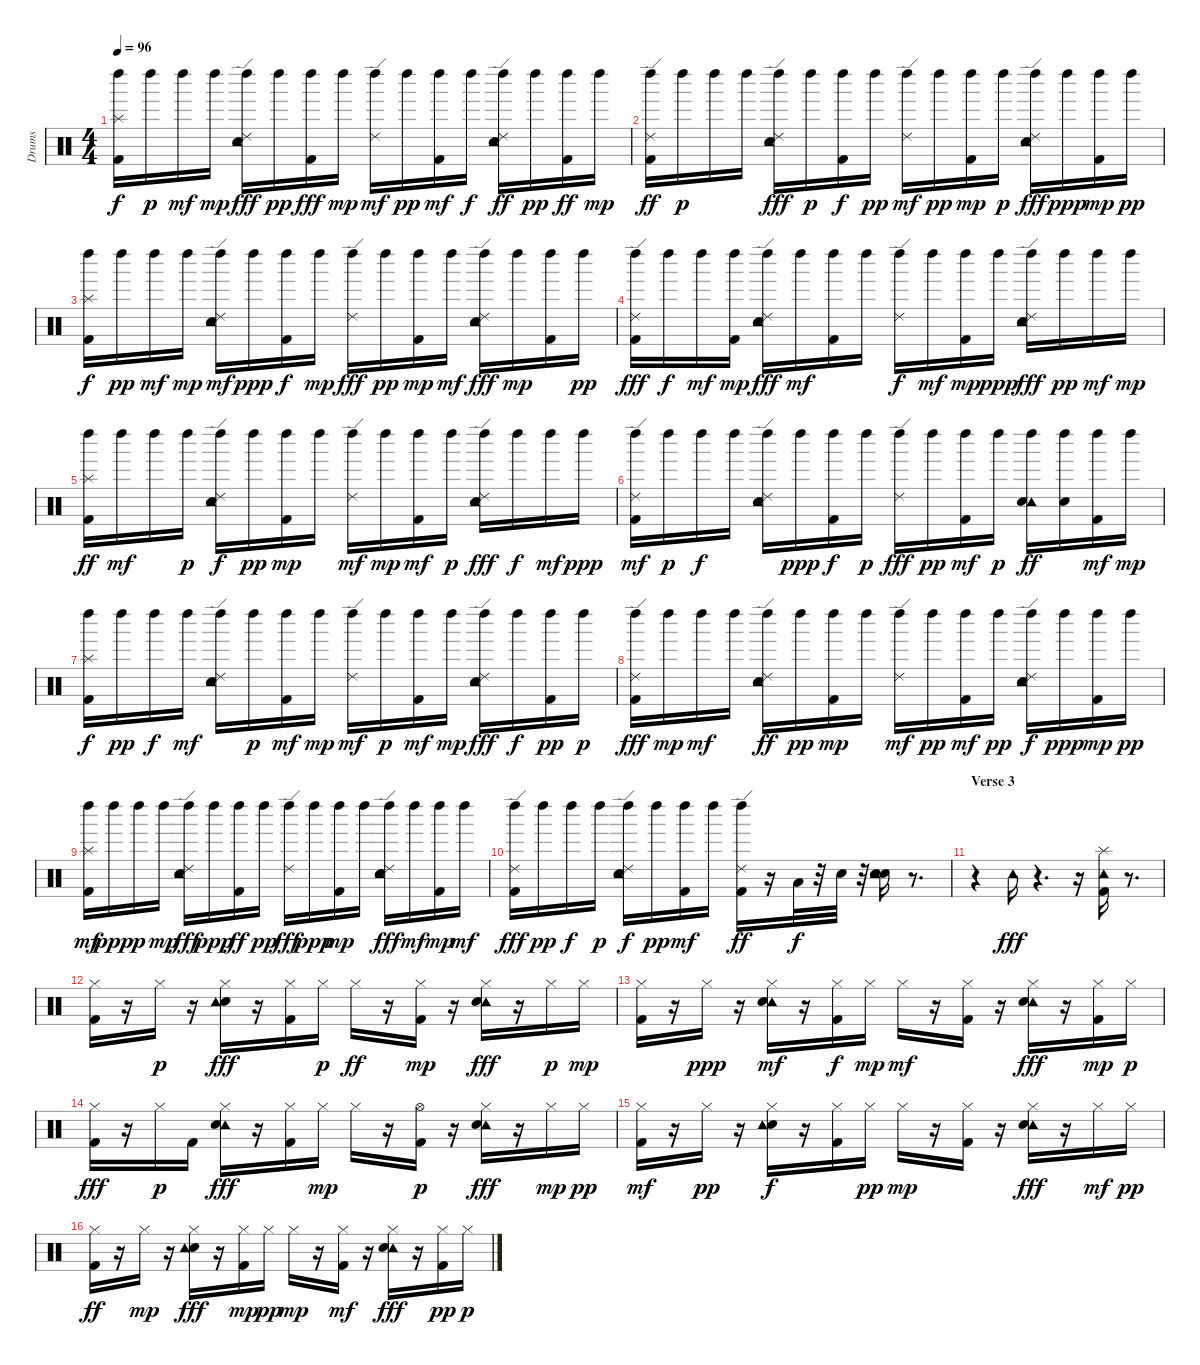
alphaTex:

\track ("Drums" "Drums") {instrument percussion}
\staff {score}
\articulation defaults
\ts (4 4)
\tempo 96
\clef neutral
\ks c
("Splash (hit)" "Left Maraca (hit)" "Kick (hit) 2").16{dy f} "Left Maraca (hit)".16{dy p} "Left Maraca (hit)".16{dy mf} "Left Maraca (hit)".16{dy mp} ("Left Maraca (hit)" "Snare (hit) 2" "Tambourine (hit)" "Ride (edge) 2").16{dy fff} "Left Maraca (hit)".16{dy pp} ("Kick (hit) 2" "Left Maraca (hit)").16{dy fff} "Left Maraca (hit)".16{dy mp} ("Ride (edge) 2" "Left Maraca (hit)").16{dy mf} "Left Maraca (hit)".16{dy pp} ("Kick (hit) 2" "Left Maraca (hit)").16{dy mf} "Left Maraca (hit)".16{dy f} ("Ride (edge) 2" "Tambourine (hit)" "Snare (hit) 2" "Left Maraca (hit)").16{dy ff} "Left Maraca (hit)".16{dy pp} ("Left Maraca (hit)" "Kick (hit) 2").16{dy ff} "Left Maraca (hit)".16{dy mp} |
("Ride (edge) 2" "Left Maraca (hit)" "Kick (hit) 2").16{dy ff} "Left Maraca (hit)".16{dy p} "Left Maraca (hit)".16 "Left Maraca (hit)".16 ("Left Maraca (hit)" "Snare (hit) 2" "Tambourine (hit)" "Ride (edge) 2").16{dy fff} "Left Maraca (hit)".16{dy p} ("Kick (hit) 2" "Left Maraca (hit)").16{dy f} "Left Maraca (hit)".16{dy pp} ("Ride (edge) 2" "Left Maraca (hit)").16{dy mf} "Left Maraca (hit)".16{dy pp} ("Kick (hit) 2" "Left Maraca (hit)").16{dy mp} "Left Maraca (hit)".16{dy p} ("Ride (edge) 2" "Tambourine (hit)" "Snare (hit) 2" "Left Maraca (hit)").16{dy fff} "Left Maraca (hit)".16{dy ppp} ("Kick (hit) 2" "Left Maraca (hit)").16{dy mp} "Left Maraca (hit)".16{dy pp} |
("Left Maraca (hit)" "Splash (hit)" "Kick (hit) 2").16{dy f} "Left Maraca (hit)".16{dy pp} "Left Maraca (hit)".16{dy mf} "Left Maraca (hit)".16{dy mp} ("Ride (edge) 2" "Snare (hit) 2" "Tambourine (hit)" "Left Maraca (hit)").16{dy mf} "Left Maraca (hit)".16{dy ppp} ("Kick (hit) 2" "Left Maraca (hit)").16{dy f} "Left Maraca (hit)".16{dy mp} ("Ride (edge) 2" "Left Maraca (hit)").16{dy fff} "Left Maraca (hit)".16{dy pp} ("Kick (hit) 2" "Left Maraca (hit)").16{dy mp} "Left Maraca (hit)".16{dy mf} ("Tambourine (hit)" "Snare (hit) 2" "Ride (edge) 2" "Left Maraca (hit)").16{dy fff} "Left Maraca (hit)".16{dy mp} ("Kick (hit) 2" "Left Maraca (hit)").16 "Left Maraca (hit)".16{dy pp} |
("Left Maraca (hit)" "Kick (hit) 2" "Ride (edge) 2").16{dy fff} "Left Maraca (hit)".16{dy f} "Left Maraca (hit)".16{dy mf} ("Kick (hit) 2" "Left Maraca (hit)").16{dy mp} ("Ride (edge) 2" "Left Maraca (hit)" "Snare (hit) 2" "Tambourine (hit)").16{dy fff} "Left Maraca (hit)".16{dy mf} ("Left Maraca (hit)" "Kick (hit) 2").16 "Left Maraca (hit)".16 ("Ride (edge) 2" "Left Maraca (hit)").16{dy f} "Left Maraca (hit)".16{dy mf} ("Left Maraca (hit)" "Kick (hit) 2").16{dy mp} "Left Maraca (hit)".16{dy ppp} ("Tambourine (hit)" "Snare (hit) 2" "Left Maraca (hit)" "Ride (edge) 2").16{dy fff} "Left Maraca (hit)".16{dy pp} "Left Maraca (hit)".16{dy mf} "Left Maraca (hit)".16{dy mp} |
("Left Maraca (hit)" "Kick (hit) 2" "Splash (hit)").16{dy ff} "Left Maraca (hit)".16{dy mf} "Left Maraca (hit)".16 "Left Maraca (hit)".16{dy p} ("Left Maraca (hit)" "Tambourine (hit)" "Snare (hit) 2" "Ride (edge) 2").16{dy f} "Left Maraca (hit)".16{dy pp} ("Left Maraca (hit)" "Kick (hit) 2").16{dy mp} "Left Maraca (hit)".16 ("Ride (edge) 2" "Left Maraca (hit)").16{dy mf} "Left Maraca (hit)".16{dy mp} ("Kick (hit) 2" "Left Maraca (hit)").16{dy mf} "Left Maraca (hit)".16{dy p} ("Ride (edge) 2" "Tambourine (hit)" "Snare (hit) 2" "Left Maraca (hit)").16{dy fff} "Left Maraca (hit)".16{dy f} "Left Maraca (hit)".16{dy mf} "Left Maraca (hit)".16{dy ppp} |
("Ride (edge) 2" "Kick (hit) 2" "Left Maraca (hit)").16{dy mf} "Left Maraca (hit)".16{dy p} "Left Maraca (hit)".16{dy f} "Left Maraca (hit)".16 ("Ride (edge) 2" "Tambourine (hit)" "Snare (hit) 2" "Left Maraca (hit)").16 "Left Maraca (hit)".16{dy ppp} ("Left Maraca (hit)" "Kick (hit) 2").16{dy f} "Left Maraca (hit)".16{dy p} ("Ride (edge) 2" "Left Maraca (hit)").16{dy fff} "Left Maraca (hit)".16{dy pp} ("Left Maraca (hit)" "Kick (hit) 2").16{dy mf} "Left Maraca (hit)".16{dy p} ("Left Maraca (hit)" "Tambourine (hit)" "Snare (hit) 2").16{dy ff} ("Snare (hit) 2" "Left Maraca (hit)").16 ("Kick (hit) 2" "Left Maraca (hit)").16{dy mf} "Left Maraca (hit)".16{dy mp} |
("Splash (hit)" "Kick (hit) 2" "Left Maraca (hit)").16{dy f} "Left Maraca (hit)".16{dy pp} "Left Maraca (hit)".16{dy f} "Left Maraca (hit)".16{dy mf} ("Left Maraca (hit)" "Ride (edge) 2" "Snare (hit) 2" "Tambourine (hit)").16 "Left Maraca (hit)".16{dy p} ("Left Maraca (hit)" "Kick (hit) 2").16{dy mf} "Left Maraca (hit)".16{dy mp} ("Left Maraca (hit)" "Ride (edge) 2").16{dy mf} "Left Maraca (hit)".16{dy p} ("Left Maraca (hit)" "Kick (hit) 2").16{dy mf} "Left Maraca (hit)".16{dy mp} ("Tambourine (hit)" "Snare (hit) 2" "Left Maraca (hit)" "Ride (edge) 2").16{dy fff} "Left Maraca (hit)".16{dy f} ("Kick (hit) 2" "Left Maraca (hit)").16{dy pp} "Left Maraca (hit)".16{dy p} |
("Kick (hit) 2" "Ride (edge) 2" "Left Maraca (hit)").16{dy fff} "Left Maraca (hit)".16{dy mp} "Left Maraca (hit)".16{dy mf} "Left Maraca (hit)".16 ("Left Maraca (hit)" "Snare (hit) 2" "Tambourine (hit)" "Ride (edge) 2").16{dy ff} "Left Maraca (hit)".16{dy pp} ("Left Maraca (hit)" "Kick (hit) 2").16{dy mp} "Left Maraca (hit)".16 ("Left Maraca (hit)" "Ride (edge) 2").16{dy mf} "Left Maraca (hit)".16{dy pp} ("Kick (hit) 2" "Left Maraca (hit)").16{dy mf} "Left Maraca (hit)".16{dy pp} ("Ride (edge) 2" "Tambourine (hit)" "Snare (hit) 2" "Left Maraca (hit)").16{dy f} "Left Maraca (hit)".16{dy ppp} ("Left Maraca (hit)" "Kick (hit) 2").16{dy mp} "Left Maraca (hit)".16{dy pp} |
("Left Maraca (hit)" "Splash (hit)" "Kick (hit) 2").16{dy mf} "Left Maraca (hit)".16{dy ppp} "Left Maraca (hit)".16{dy p} "Left Maraca (hit)".16{dy mp} ("Left Maraca (hit)" "Tambourine (hit)" "Snare (hit) 2" "Ride (edge) 2").16{dy fff} "Left Maraca (hit)".16{dy ppp} ("Left Maraca (hit)" "Kick (hit) 2").16{dy ff} "Left Maraca (hit)".16{dy pp} ("Ride (edge) 2" "Left Maraca (hit)").16{dy fff} "Left Maraca (hit)".16{dy ppp} ("Kick (hit) 2" "Left Maraca (hit)").16{dy mp} "Left Maraca (hit)".16 ("Tambourine (hit)" "Snare (hit) 2" "Left Maraca (hit)" "Ride (edge) 2").16{dy fff} "Left Maraca (hit)".16{dy mf} ("Left Maraca (hit)" "Kick (hit) 2").16{dy mp} "Left Maraca (hit)".16{dy mf} |
("Left Maraca (hit)" "Kick (hit) 2" "Ride (edge) 2").16{dy fff} "Left Maraca (hit)".16{dy pp} "Left Maraca (hit)".16{dy f} "Left Maraca (hit)".16{dy p} ("Left Maraca (hit)" "Tambourine (hit)" "Snare (hit) 2" "Ride (edge) 2").16{dy f} "Left Maraca (hit)".16{dy pp} ("Left Maraca (hit)" "Kick (hit) 2").16{dy mf} "Left Maraca (hit)".16 ("Left Maraca (hit)" "Ride (edge) 2" "Kick (hit) 2").16{dy ff} r.16 "Low Floor Tom (hit)".32{dy f} r.32 "Snare (hit) 2".32 r.32 ("Snare (hit) 2" "Snare (hit) 2" "Tambourine (hit)").16 r.8{d} |
\section ("" "Verse 3")
r.4 "Tambourine (hit)".16{dy fff} r.4{d} r.16 ("Tambourine (hit)" "Splash (hit)" "Kick (hit) 2").16 r.8{d} |
("Kick (hit) 2" "Hi-Hat (closed)").16 r.16 "Hi-Hat (closed)".16{dy p} r.16 ("Snare (hit) 2" "Tambourine (hit)" "Hi-Hat (closed)").16{dy fff} r.16 ("Kick (hit) 2" "Hi-Hat (closed)").16 "Hi-Hat (closed)".16{dy p} "Hi-Hat (closed)".16{dy ff} r.16 ("Kick (hit) 2" "Hi-Hat (closed)").16{dy mp} r.16 ("Tambourine (hit)" "Snare (hit) 2" "Hi-Hat (closed)").16{dy fff} r.16 "Hi-Hat (closed)".16{dy p} "Hi-Hat (closed)".16{dy mp} |
("Hi-Hat (closed)" "Kick (hit) 2").16 r.16 "Hi-Hat (closed)".16{dy ppp} r.16 ("Hi-Hat (closed)" "Tambourine (hit)" "Snare (hit) 2").16{dy mf} r.16 ("Kick (hit) 2" "Hi-Hat (closed)").16{dy f} "Hi-Hat (closed)".16{dy mp} "Hi-Hat (closed)".16{dy mf} r.16 ("Kick (hit) 2" "Hi-Hat (closed)").16 r.16 ("Tambourine (hit)" "Snare (hit) 2" "Hi-Hat (closed)").16{dy fff} r.16 ("Kick (hit) 2" "Hi-Hat (closed)").16{dy mp} "Hi-Hat (closed)".16{dy p} |
("Kick (hit) 2" "Hi-Hat (closed)").16{dy fff} r.16 "Hi-Hat (closed)".16{dy p} "Kick (hit) 2".16 ("Tambourine (hit)" "Snare (hit) 2" "Hi-Hat (closed)").16{dy fff} r.16 ("Kick (hit) 2" "Hi-Hat (closed)").16 "Hi-Hat (closed)".16{dy mp} "Hi-Hat (closed)".16 r.16 ("Kick (hit) 2" "Hi-Hat (open)").16{dy p} r.16 ("Tambourine (hit)" "Snare (hit) 2" "Hi-Hat (closed)").16{dy fff} r.16 "Hi-Hat (closed)".16{dy mp} "Hi-Hat (closed)".16{dy pp} |
("Kick (hit) 2" "Hi-Hat (closed)").16{dy mf} r.16 "Hi-Hat (closed)".16{dy pp} r.16 ("Hi-Hat (closed)" "Snare (hit) 2" "Tambourine (hit)").16{dy f} r.16 ("Kick (hit) 2" "Hi-Hat (closed)").16 "Hi-Hat (closed)".16{dy pp} "Hi-Hat (closed)".16{dy mp} r.16 ("Kick (hit) 2" "Hi-Hat (closed)").16 r.16 ("Tambourine (hit)" "Snare (hit) 2" "Hi-Hat (closed)").16{dy fff} r.16 "Hi-Hat (closed)".16{dy mf} "Hi-Hat (closed)".16{dy pp} |
("Kick (hit) 2" "Hi-Hat (closed)").16{dy ff} r.16 "Hi-Hat (closed)".16{dy mp} r.16 ("Snare (hit) 2" "Tambourine (hit)" "Hi-Hat (closed)").16{dy fff} r.16 ("Hi-Hat (closed)" "Kick (hit) 2").16{dy mp} "Hi-Hat (closed)".16{dy pp} "Hi-Hat (closed)".16{dy mp} r.16 ("Kick (hit) 2" "Hi-Hat (closed)").16{dy mf} r.16 ("Tambourine (hit)" "Snare (hit) 2" "Hi-Hat (closed)").16{dy fff} r.16 ("Hi-Hat (closed)" "Kick (hit) 2").16{dy pp} "Hi-Hat (closed)".16{dy p}
